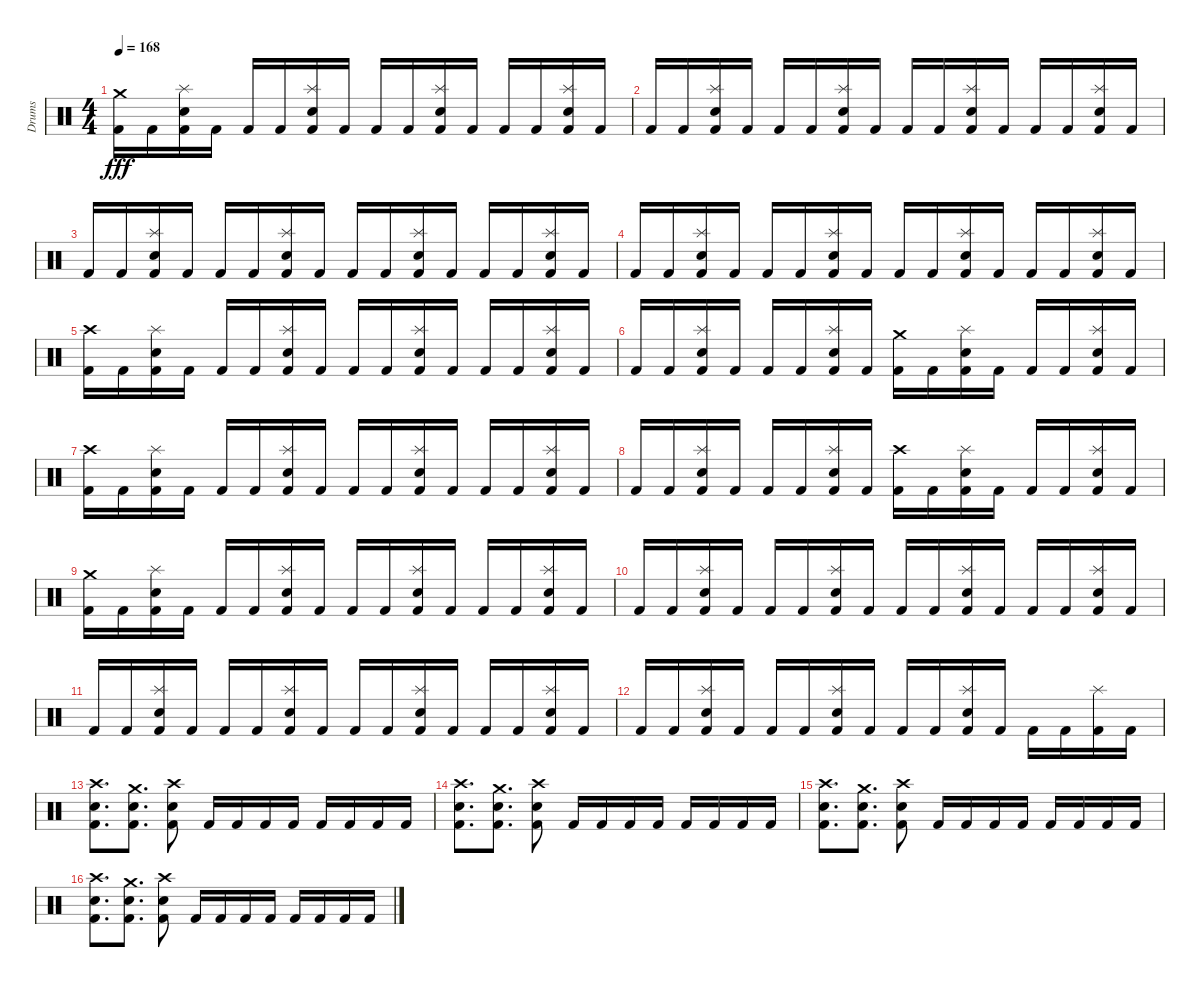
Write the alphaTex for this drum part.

\track ("Drums" "Drums") {instrument percussion}
\staff {score}
\articulation defaults
\ts (4 4)
\tempo 168
\clef neutral
\ks c
("Crash medium (hit)" "Kick (hit) 2").16{dy fff} "Kick (hit) 2".16 ("Splash (hit)" "Snare (hit) 2" "Kick (hit) 2").16 "Kick (hit) 2".16 "Kick (hit) 2".16 "Kick (hit) 2".16 ("Splash (hit)" "Snare (hit) 2" "Kick (hit) 2").16 "Kick (hit) 2".16 "Kick (hit) 2".16 "Kick (hit) 2".16 ("Splash (hit)" "Snare (hit) 2" "Kick (hit) 2").16 "Kick (hit) 2".16 "Kick (hit) 2".16 "Kick (hit) 2".16 ("Splash (hit)" "Snare (hit) 2" "Kick (hit) 2").16 "Kick (hit) 2".16 |
"Kick (hit) 2".16 "Kick (hit) 2".16 ("Splash (hit)" "Snare (hit) 2" "Kick (hit) 2").16 "Kick (hit) 2".16 "Kick (hit) 2".16 "Kick (hit) 2".16 ("Splash (hit)" "Snare (hit) 2" "Kick (hit) 2").16 "Kick (hit) 2".16 "Kick (hit) 2".16 "Kick (hit) 2".16 ("Splash (hit)" "Snare (hit) 2" "Kick (hit) 2").16 "Kick (hit) 2".16 "Kick (hit) 2".16 "Kick (hit) 2".16 ("Splash (hit)" "Snare (hit) 2" "Kick (hit) 2").16 "Kick (hit) 2".16 |
"Kick (hit) 2".16 "Kick (hit) 2".16 ("Splash (hit)" "Snare (hit) 2" "Kick (hit) 2").16 "Kick (hit) 2".16 "Kick (hit) 2".16 "Kick (hit) 2".16 ("Splash (hit)" "Snare (hit) 2" "Kick (hit) 2").16 "Kick (hit) 2".16 "Kick (hit) 2".16 "Kick (hit) 2".16 ("Splash (hit)" "Snare (hit) 2" "Kick (hit) 2").16 "Kick (hit) 2".16 "Kick (hit) 2".16 "Kick (hit) 2".16 ("Splash (hit)" "Snare (hit) 2" "Kick (hit) 2").16 "Kick (hit) 2".16 |
"Kick (hit) 2".16 "Kick (hit) 2".16 ("Splash (hit)" "Snare (hit) 2" "Kick (hit) 2").16 "Kick (hit) 2".16 "Kick (hit) 2".16 "Kick (hit) 2".16 ("Splash (hit)" "Snare (hit) 2" "Kick (hit) 2").16 "Kick (hit) 2".16 "Kick (hit) 2".16 "Kick (hit) 2".16 ("Splash (hit)" "Snare (hit) 2" "Kick (hit) 2").16 "Kick (hit) 2".16 "Kick (hit) 2".16 "Kick (hit) 2".16 ("Splash (hit)" "Snare (hit) 2" "Kick (hit) 2").16 "Kick (hit) 2".16 |
("Crash high (hit)" "Kick (hit) 2").16 "Kick (hit) 2".16 ("Splash (hit)" "Snare (hit) 2" "Kick (hit) 2").16 "Kick (hit) 2".16 "Kick (hit) 2".16 "Kick (hit) 2".16 ("Splash (hit)" "Snare (hit) 2" "Kick (hit) 2").16 "Kick (hit) 2".16 "Kick (hit) 2".16 "Kick (hit) 2".16 ("Splash (hit)" "Snare (hit) 2" "Kick (hit) 2").16 "Kick (hit) 2".16 "Kick (hit) 2".16 "Kick (hit) 2".16 ("Splash (hit)" "Snare (hit) 2" "Kick (hit) 2").16 "Kick (hit) 2".16 |
"Kick (hit) 2".16 "Kick (hit) 2".16 ("Splash (hit)" "Snare (hit) 2" "Kick (hit) 2").16 "Kick (hit) 2".16 "Kick (hit) 2".16 "Kick (hit) 2".16 ("Splash (hit)" "Snare (hit) 2" "Kick (hit) 2").16 "Kick (hit) 2".16 ("Crash medium (hit)" "Kick (hit) 2").16 "Kick (hit) 2".16 ("Splash (hit)" "Snare (hit) 2" "Kick (hit) 2").16 "Kick (hit) 2".16 "Kick (hit) 2".16 "Kick (hit) 2".16 ("Splash (hit)" "Snare (hit) 2" "Kick (hit) 2").16 "Kick (hit) 2".16 |
("Crash high (hit)" "Kick (hit) 2").16 "Kick (hit) 2".16 ("Splash (hit)" "Snare (hit) 2" "Kick (hit) 2").16 "Kick (hit) 2".16 "Kick (hit) 2".16 "Kick (hit) 2".16 ("Splash (hit)" "Snare (hit) 2" "Kick (hit) 2").16 "Kick (hit) 2".16 "Kick (hit) 2".16 "Kick (hit) 2".16 ("Splash (hit)" "Snare (hit) 2" "Kick (hit) 2").16 "Kick (hit) 2".16 "Kick (hit) 2".16 "Kick (hit) 2".16 ("Splash (hit)" "Snare (hit) 2" "Kick (hit) 2").16 "Kick (hit) 2".16 |
"Kick (hit) 2".16 "Kick (hit) 2".16 ("Splash (hit)" "Snare (hit) 2" "Kick (hit) 2").16 "Kick (hit) 2".16 "Kick (hit) 2".16 "Kick (hit) 2".16 ("Splash (hit)" "Snare (hit) 2" "Kick (hit) 2").16 "Kick (hit) 2".16 ("Crash high (hit)" "Kick (hit) 2").16 "Kick (hit) 2".16 ("Splash (hit)" "Snare (hit) 2" "Kick (hit) 2").16 "Kick (hit) 2".16 "Kick (hit) 2".16 "Kick (hit) 2".16 ("Splash (hit)" "Snare (hit) 2" "Kick (hit) 2").16 "Kick (hit) 2".16 |
("Crash medium (hit)" "Kick (hit) 2").16 "Kick (hit) 2".16 ("Splash (hit)" "Snare (hit) 2" "Kick (hit) 2").16 "Kick (hit) 2".16 "Kick (hit) 2".16 "Kick (hit) 2".16 ("Splash (hit)" "Snare (hit) 2" "Kick (hit) 2").16 "Kick (hit) 2".16 "Kick (hit) 2".16 "Kick (hit) 2".16 ("Splash (hit)" "Snare (hit) 2" "Kick (hit) 2").16 "Kick (hit) 2".16 "Kick (hit) 2".16 "Kick (hit) 2".16 ("Splash (hit)" "Snare (hit) 2" "Kick (hit) 2").16 "Kick (hit) 2".16 |
"Kick (hit) 2".16 "Kick (hit) 2".16 ("Splash (hit)" "Snare (hit) 2" "Kick (hit) 2").16 "Kick (hit) 2".16 "Kick (hit) 2".16 "Kick (hit) 2".16 ("Splash (hit)" "Snare (hit) 2" "Kick (hit) 2").16 "Kick (hit) 2".16 "Kick (hit) 2".16 "Kick (hit) 2".16 ("Splash (hit)" "Snare (hit) 2" "Kick (hit) 2").16 "Kick (hit) 2".16 "Kick (hit) 2".16 "Kick (hit) 2".16 ("Splash (hit)" "Snare (hit) 2" "Kick (hit) 2").16 "Kick (hit) 2".16 |
"Kick (hit) 2".16 "Kick (hit) 2".16 ("Splash (hit)" "Snare (hit) 2" "Kick (hit) 2").16 "Kick (hit) 2".16 "Kick (hit) 2".16 "Kick (hit) 2".16 ("Splash (hit)" "Snare (hit) 2" "Kick (hit) 2").16 "Kick (hit) 2".16 "Kick (hit) 2".16 "Kick (hit) 2".16 ("Splash (hit)" "Snare (hit) 2" "Kick (hit) 2").16 "Kick (hit) 2".16 "Kick (hit) 2".16 "Kick (hit) 2".16 ("Splash (hit)" "Snare (hit) 2" "Kick (hit) 2").16 "Kick (hit) 2".16 |
"Kick (hit) 2".16 "Kick (hit) 2".16 ("Splash (hit)" "Snare (hit) 2" "Kick (hit) 2").16 "Kick (hit) 2".16 "Kick (hit) 2".16 "Kick (hit) 2".16 ("Splash (hit)" "Snare (hit) 2" "Kick (hit) 2").16 "Kick (hit) 2".16 "Kick (hit) 2".16 "Kick (hit) 2".16 ("Splash (hit)" "Snare (hit) 2" "Kick (hit) 2").16 "Kick (hit) 2".16 "Kick (hit) 2".16 "Kick (hit) 2".16 ("Splash (hit)" "Kick (hit) 2").16 "Kick (hit) 2".16 |
("Crash high (hit)" "Snare (hit) 2" "Kick (hit) 2").8{d} ("Crash medium (hit)" "Snare (hit) 2" "Kick (hit) 2").8{d} ("Crash high (hit)" "Snare (hit) 2" "Kick (hit) 2").8 "Kick (hit) 2".16 "Kick (hit) 2".16 "Kick (hit) 2".16 "Kick (hit) 2".16 "Kick (hit) 2".16 "Kick (hit) 2".16 "Kick (hit) 2".16 "Kick (hit) 2".16 |
("Crash high (hit)" "Snare (hit) 2" "Kick (hit) 2").8{d} ("Crash medium (hit)" "Snare (hit) 2" "Kick (hit) 2").8{d} ("Crash high (hit)" "Snare (hit) 2" "Kick (hit) 2").8 "Kick (hit) 2".16 "Kick (hit) 2".16 "Kick (hit) 2".16 "Kick (hit) 2".16 "Kick (hit) 2".16 "Kick (hit) 2".16 "Kick (hit) 2".16 "Kick (hit) 2".16 |
("Crash high (hit)" "Snare (hit) 2" "Kick (hit) 2").8{d} ("Crash medium (hit)" "Snare (hit) 2" "Kick (hit) 2").8{d} ("Crash high (hit)" "Snare (hit) 2" "Kick (hit) 2").8 "Kick (hit) 2".16 "Kick (hit) 2".16 "Kick (hit) 2".16 "Kick (hit) 2".16 "Kick (hit) 2".16 "Kick (hit) 2".16 "Kick (hit) 2".16 "Kick (hit) 2".16 |
("Crash high (hit)" "Snare (hit) 2" "Kick (hit) 2").8{d} ("Crash medium (hit)" "Snare (hit) 2" "Kick (hit) 2").8{d} ("Crash high (hit)" "Snare (hit) 2" "Kick (hit) 2").8 "Kick (hit) 2".16 "Kick (hit) 2".16 "Kick (hit) 2".16 "Kick (hit) 2".16 "Kick (hit) 2".16 "Kick (hit) 2".16 "Kick (hit) 2".16 "Kick (hit) 2".16
